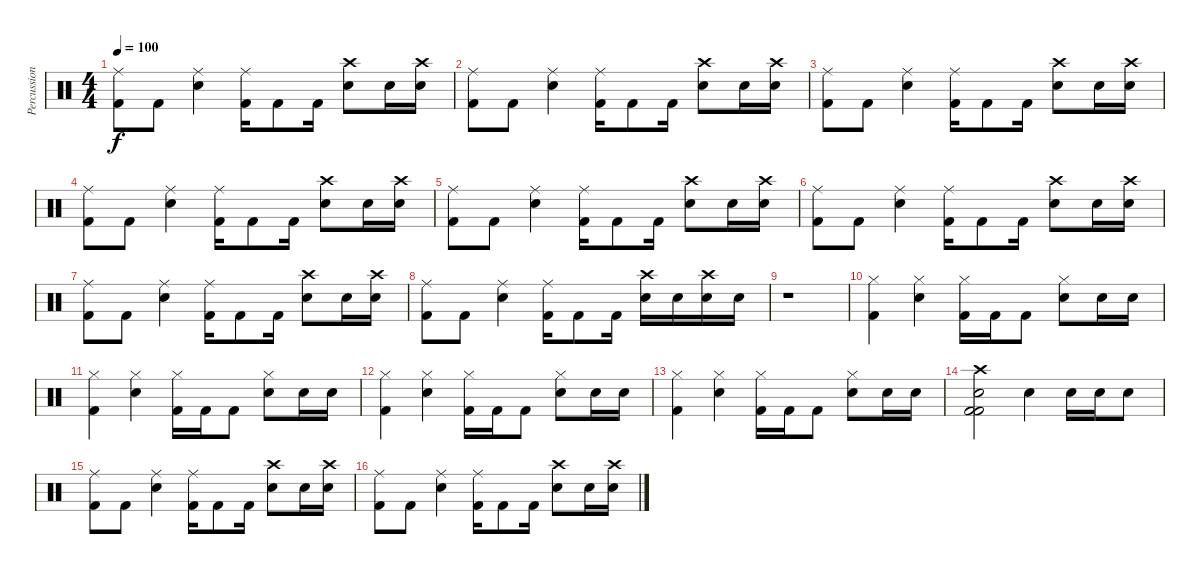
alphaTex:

\track ("Percussion - Drums" "Percussion") {instrument percussion}
\staff {score}
\articulation defaults
\ts (4 4)
\tempo 100
\clef neutral
\ks c
("Ride (middle)" "Kick (hit) 2").8{dy f} "Kick (hit) 2".8 ("Ride (middle)" "Snare (hit) 2").4 ("Ride (middle)" "Kick (hit) 2").16 "Kick (hit) 2".8 "Kick (hit) 2".16 ("Crash high (hit)" "Snare (hit) 2").8 "Snare (hit) 2".16 ("Crash high (hit)" "Snare (hit) 2").16 |
("Ride (middle)" "Kick (hit) 2").8 "Kick (hit) 2".8 ("Ride (middle)" "Snare (hit) 2").4 ("Ride (middle)" "Kick (hit) 2").16 "Kick (hit) 2".8 "Kick (hit) 2".16 ("Crash high (hit)" "Snare (hit) 2").8 "Snare (hit) 2".16 ("Crash high (hit)" "Snare (hit) 2").16 |
("Ride (middle)" "Kick (hit) 2").8 "Kick (hit) 2".8 ("Ride (middle)" "Snare (hit) 2").4 ("Ride (middle)" "Kick (hit) 2").16 "Kick (hit) 2".8 "Kick (hit) 2".16 ("Crash high (hit)" "Snare (hit) 2").8 "Snare (hit) 2".16 ("Crash high (hit)" "Snare (hit) 2").16 |
("Ride (middle)" "Kick (hit) 2").8 "Kick (hit) 2".8 ("Ride (middle)" "Snare (hit) 2").4 ("Ride (middle)" "Kick (hit) 2").16 "Kick (hit) 2".8 "Kick (hit) 2".16 ("Crash high (hit)" "Snare (hit) 2").8 "Snare (hit) 2".16 ("Crash high (hit)" "Snare (hit) 2").16 |
("Ride (middle)" "Kick (hit) 2").8 "Kick (hit) 2".8 ("Ride (middle)" "Snare (hit) 2").4 ("Ride (middle)" "Kick (hit) 2").16 "Kick (hit) 2".8 "Kick (hit) 2".16 ("Crash high (hit)" "Snare (hit) 2").8 "Snare (hit) 2".16 ("Crash high (hit)" "Snare (hit) 2").16 |
("Ride (middle)" "Kick (hit) 2").8 "Kick (hit) 2".8 ("Ride (middle)" "Snare (hit) 2").4 ("Ride (middle)" "Kick (hit) 2").16 "Kick (hit) 2".8 "Kick (hit) 2".16 ("Crash high (hit)" "Snare (hit) 2").8 "Snare (hit) 2".16 ("Crash high (hit)" "Snare (hit) 2").16 |
("Ride (middle)" "Kick (hit) 2").8 "Kick (hit) 2".8 ("Ride (middle)" "Snare (hit) 2").4 ("Ride (middle)" "Kick (hit) 2").16 "Kick (hit) 2".8 "Kick (hit) 2".16 ("Crash high (hit)" "Snare (hit) 2").8 "Snare (hit) 2".16 ("Crash high (hit)" "Snare (hit) 2").16 |
("Ride (middle)" "Kick (hit) 2").8 "Kick (hit) 2".8 ("Ride (middle)" "Snare (hit) 2").4 ("Ride (middle)" "Kick (hit) 2").16 "Kick (hit) 2".8 "Kick (hit) 2".16 ("Crash high (hit)" "Snare (hit) 2").16 "Snare (hit) 2".16 ("Crash high (hit)" "Snare (hit) 2").16 "Snare (hit) 2".16 |
r.1 |
("Hi-Hat (closed)" "Kick (hit) 2").4 ("Hi-Hat (closed)" "Snare (hit) 2").4 ("Hi-Hat (closed)" "Kick (hit) 2").16 "Kick (hit) 2".16 "Kick (hit) 2".8 ("Hi-Hat (closed)" "Snare (hit) 2").8 "Snare (hit) 2".16 "Snare (hit) 2".16 |
("Hi-Hat (closed)" "Kick (hit) 2").4 ("Hi-Hat (closed)" "Snare (hit) 2").4 ("Hi-Hat (closed)" "Kick (hit) 2").16 "Kick (hit) 2".16 "Kick (hit) 2".8 ("Hi-Hat (closed)" "Snare (hit) 2").8 "Snare (hit) 2".16 "Snare (hit) 2".16 |
("Hi-Hat (closed)" "Kick (hit) 2").4 ("Hi-Hat (closed)" "Snare (hit) 2").4 ("Hi-Hat (closed)" "Kick (hit) 2").16 "Kick (hit) 2".16 "Kick (hit) 2".8 ("Hi-Hat (closed)" "Snare (hit) 2").8 "Snare (hit) 2".16 "Snare (hit) 2".16 |
("Hi-Hat (closed)" "Kick (hit) 2").4 ("Hi-Hat (closed)" "Snare (hit) 2").4 ("Hi-Hat (closed)" "Kick (hit) 2").16 "Kick (hit) 2".16 "Kick (hit) 2".8 ("Hi-Hat (closed)" "Snare (hit) 2").8 "Snare (hit) 2".16 "Snare (hit) 2".16 |
("Crash high (hit)" "Kick (hit) 2" "Snare (hit) 2" "Kick (hit) 2").2 "Snare (hit) 2".4 "Snare (hit) 2".16 "Snare (hit) 2".16 "Snare (hit) 2".8 |
("Ride (middle)" "Kick (hit) 2").8 "Kick (hit) 2".8 ("Ride (middle)" "Snare (hit) 2").4 ("Ride (middle)" "Kick (hit) 2").16 "Kick (hit) 2".8 "Kick (hit) 2".16 ("Crash high (hit)" "Snare (hit) 2").8 "Snare (hit) 2".16 ("Crash high (hit)" "Snare (hit) 2").16 |
("Ride (middle)" "Kick (hit) 2").8 "Kick (hit) 2".8 ("Ride (middle)" "Snare (hit) 2").4 ("Ride (middle)" "Kick (hit) 2").16 "Kick (hit) 2".8 "Kick (hit) 2".16 ("Crash high (hit)" "Snare (hit) 2").8 "Snare (hit) 2".16 ("Crash high (hit)" "Snare (hit) 2").16
